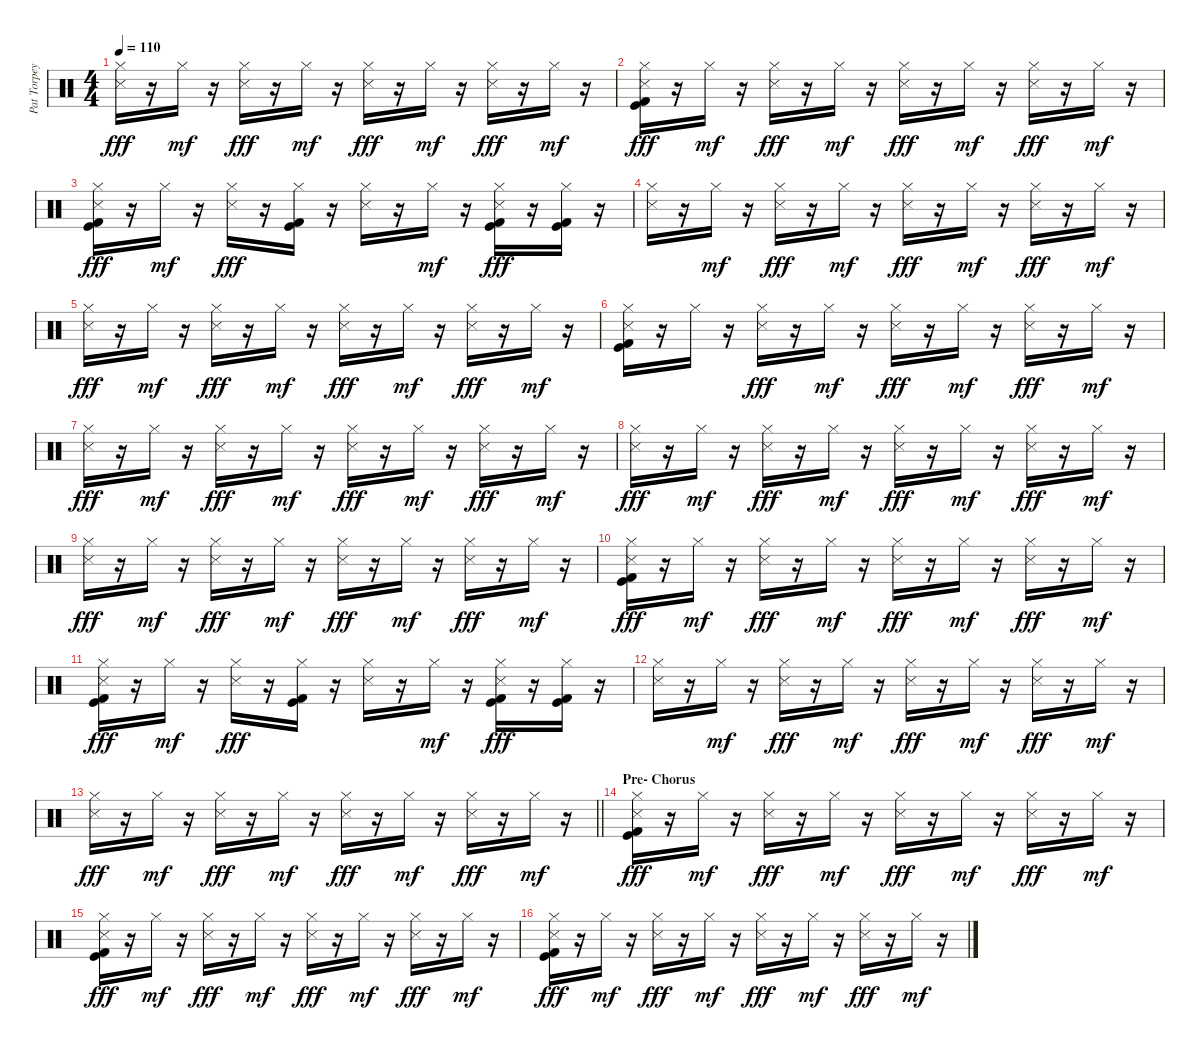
\track ("Pat Torpey" "Pat Torpey") {instrument percussion}
\staff {score}
\articulation defaults
\ts (4 4)
\tempo 110
\clef neutral
\ks c
("Snare (side stick) 3" "Hi-Hat (closed)").16{dy fff} r.16 "Hi-Hat (closed)".16{dy mf} r.16 ("Snare (side stick) 3" "Hi-Hat (closed)").16{dy fff} r.16 "Hi-Hat (closed)".16{dy mf} r.16 ("Snare (side stick) 3" "Hi-Hat (closed)").16{dy fff} r.16 "Hi-Hat (closed)".16{dy mf} r.16 ("Snare (side stick) 3" "Hi-Hat (closed)").16{dy fff} r.16 "Hi-Hat (closed)".16{dy mf} r.16 |
("Snare (side stick) 3" "Hi-Hat (closed)" "Kick (hit)" "Kick (hit) 2").16{dy fff} r.16 "Hi-Hat (closed)".16{dy mf} r.16 ("Snare (side stick) 3" "Hi-Hat (closed)").16{dy fff} r.16 "Hi-Hat (closed)".16{dy mf} r.16 ("Snare (side stick) 3" "Hi-Hat (closed)").16{dy fff} r.16 "Hi-Hat (closed)".16{dy mf} r.16 ("Snare (side stick) 3" "Hi-Hat (closed)").16{dy fff} r.16 "Hi-Hat (closed)".16{dy mf} r.16 |
("Snare (side stick) 3" "Hi-Hat (closed)" "Kick (hit)" "Kick (hit) 2").16{dy fff} r.16 "Hi-Hat (closed)".16{dy mf} r.16 ("Snare (side stick) 3" "Hi-Hat (closed)").16{dy fff} r.16 ("Hi-Hat (closed)" "Kick (hit)" "Kick (hit) 2").16 r.16 ("Snare (side stick) 3" "Hi-Hat (closed)").16 r.16 "Hi-Hat (closed)".16{dy mf} r.16 ("Snare (side stick) 3" "Hi-Hat (closed)" "Kick (hit)" "Kick (hit) 2").16{dy fff} r.16 ("Hi-Hat (closed)" "Kick (hit)" "Kick (hit) 2").16 r.16 |
("Snare (side stick) 3" "Hi-Hat (closed)").16 r.16 "Hi-Hat (closed)".16{dy mf} r.16 ("Snare (side stick) 3" "Hi-Hat (closed)").16{dy fff} r.16 "Hi-Hat (closed)".16{dy mf} r.16 ("Snare (side stick) 3" "Hi-Hat (closed)").16{dy fff} r.16 "Hi-Hat (closed)".16{dy mf} r.16 ("Snare (side stick) 3" "Hi-Hat (closed)").16{dy fff} r.16 "Hi-Hat (closed)".16{dy mf} r.16 |
("Snare (side stick) 3" "Hi-Hat (closed)").16{dy fff} r.16 "Hi-Hat (closed)".16{dy mf} r.16 ("Snare (side stick) 3" "Hi-Hat (closed)").16{dy fff} r.16 "Hi-Hat (closed)".16{dy mf} r.16 ("Snare (side stick) 3" "Hi-Hat (closed)").16{dy fff} r.16 "Hi-Hat (closed)".16{dy mf} r.16 ("Snare (side stick) 3" "Hi-Hat (closed)").16{dy fff} r.16 "Hi-Hat (closed)".16{dy mf} r.16 |
("Snare (side stick) 3" "Hi-Hat (closed)" "Kick (hit)" "Kick (hit) 2").16 r.16 "Hi-Hat (closed)".16 r.16 ("Snare (side stick) 3" "Hi-Hat (closed)").16{dy fff} r.16 "Hi-Hat (closed)".16{dy mf} r.16 ("Snare (side stick) 3" "Hi-Hat (closed)").16{dy fff} r.16 "Hi-Hat (closed)".16{dy mf} r.16 ("Snare (side stick) 3" "Hi-Hat (closed)").16{dy fff} r.16 "Hi-Hat (closed)".16{dy mf} r.16 |
("Snare (side stick) 3" "Hi-Hat (closed)").16{dy fff} r.16 "Hi-Hat (closed)".16{dy mf} r.16 ("Snare (side stick) 3" "Hi-Hat (closed)").16{dy fff} r.16 "Hi-Hat (closed)".16{dy mf} r.16 ("Snare (side stick) 3" "Hi-Hat (closed)").16{dy fff} r.16 "Hi-Hat (closed)".16{dy mf} r.16 ("Snare (side stick) 3" "Hi-Hat (closed)").16{dy fff} r.16 "Hi-Hat (closed)".16{dy mf} r.16 |
("Snare (side stick) 3" "Hi-Hat (closed)").16{dy fff} r.16 "Hi-Hat (closed)".16{dy mf} r.16 ("Snare (side stick) 3" "Hi-Hat (closed)").16{dy fff} r.16 "Hi-Hat (closed)".16{dy mf} r.16 ("Snare (side stick) 3" "Hi-Hat (closed)").16{dy fff} r.16 "Hi-Hat (closed)".16{dy mf} r.16 ("Snare (side stick) 3" "Hi-Hat (closed)").16{dy fff} r.16 "Hi-Hat (closed)".16{dy mf} r.16 |
("Snare (side stick) 3" "Hi-Hat (closed)").16{dy fff} r.16 "Hi-Hat (closed)".16{dy mf} r.16 ("Snare (side stick) 3" "Hi-Hat (closed)").16{dy fff} r.16 "Hi-Hat (closed)".16{dy mf} r.16 ("Snare (side stick) 3" "Hi-Hat (closed)").16{dy fff} r.16 "Hi-Hat (closed)".16{dy mf} r.16 ("Snare (side stick) 3" "Hi-Hat (closed)").16{dy fff} r.16 "Hi-Hat (closed)".16{dy mf} r.16 |
("Snare (side stick) 3" "Hi-Hat (closed)" "Kick (hit)" "Kick (hit) 2").16{dy fff} r.16 "Hi-Hat (closed)".16{dy mf} r.16 ("Snare (side stick) 3" "Hi-Hat (closed)").16{dy fff} r.16 "Hi-Hat (closed)".16{dy mf} r.16 ("Snare (side stick) 3" "Hi-Hat (closed)").16{dy fff} r.16 "Hi-Hat (closed)".16{dy mf} r.16 ("Snare (side stick) 3" "Hi-Hat (closed)").16{dy fff} r.16 "Hi-Hat (closed)".16{dy mf} r.16 |
("Snare (side stick) 3" "Hi-Hat (closed)" "Kick (hit)" "Kick (hit) 2").16{dy fff} r.16 "Hi-Hat (closed)".16{dy mf} r.16 ("Snare (side stick) 3" "Hi-Hat (closed)").16{dy fff} r.16 ("Hi-Hat (closed)" "Kick (hit)" "Kick (hit) 2").16 r.16 ("Snare (side stick) 3" "Hi-Hat (closed)").16 r.16 "Hi-Hat (closed)".16{dy mf} r.16 ("Snare (side stick) 3" "Hi-Hat (closed)" "Kick (hit)" "Kick (hit) 2").16{dy fff} r.16 ("Hi-Hat (closed)" "Kick (hit)" "Kick (hit) 2").16 r.16 |
("Snare (side stick) 3" "Hi-Hat (closed)").16 r.16 "Hi-Hat (closed)".16{dy mf} r.16 ("Snare (side stick) 3" "Hi-Hat (closed)").16{dy fff} r.16 "Hi-Hat (closed)".16{dy mf} r.16 ("Snare (side stick) 3" "Hi-Hat (closed)").16{dy fff} r.16 "Hi-Hat (closed)".16{dy mf} r.16 ("Snare (side stick) 3" "Hi-Hat (closed)").16{dy fff} r.16 "Hi-Hat (closed)".16{dy mf} r.16 |
\barLineRight lightlight
("Snare (side stick) 3" "Hi-Hat (closed)").16{dy fff} r.16 "Hi-Hat (closed)".16{dy mf} r.16 ("Snare (side stick) 3" "Hi-Hat (closed)").16{dy fff} r.16 "Hi-Hat (closed)".16{dy mf} r.16 ("Snare (side stick) 3" "Hi-Hat (closed)").16{dy fff} r.16 "Hi-Hat (closed)".16{dy mf} r.16 ("Snare (side stick) 3" "Hi-Hat (closed)").16{dy fff} r.16 "Hi-Hat (closed)".16{dy mf} r.16 |
\section ("" "Pre- Chorus")
("Snare (side stick) 3" "Hi-Hat (closed)" "Kick (hit)" "Kick (hit) 2").16{dy fff} r.16 "Hi-Hat (closed)".16{dy mf} r.16 ("Snare (side stick) 3" "Hi-Hat (closed)").16{dy fff} r.16 "Hi-Hat (closed)".16{dy mf} r.16 ("Snare (side stick) 3" "Hi-Hat (closed)").16{dy fff} r.16 "Hi-Hat (closed)".16{dy mf} r.16 ("Snare (side stick) 3" "Hi-Hat (closed)").16{dy fff} r.16 "Hi-Hat (closed)".16{dy mf} r.16 |
("Snare (side stick) 3" "Hi-Hat (closed)" "Kick (hit)" "Kick (hit) 2").16{dy fff} r.16 "Hi-Hat (closed)".16{dy mf} r.16 ("Snare (side stick) 3" "Hi-Hat (closed)").16{dy fff} r.16 "Hi-Hat (closed)".16{dy mf} r.16 ("Snare (side stick) 3" "Hi-Hat (closed)").16{dy fff} r.16 "Hi-Hat (closed)".16{dy mf} r.16 ("Snare (side stick) 3" "Hi-Hat (closed)").16{dy fff} r.16 "Hi-Hat (closed)".16{dy mf} r.16 |
("Snare (side stick) 3" "Hi-Hat (closed)" "Kick (hit)" "Kick (hit) 2").16{dy fff} r.16 "Hi-Hat (closed)".16{dy mf} r.16 ("Snare (side stick) 3" "Hi-Hat (closed)").16{dy fff} r.16 "Hi-Hat (closed)".16{dy mf} r.16 ("Snare (side stick) 3" "Hi-Hat (closed)").16{dy fff} r.16 "Hi-Hat (closed)".16{dy mf} r.16 ("Snare (side stick) 3" "Hi-Hat (closed)").16{dy fff} r.16 "Hi-Hat (closed)".16{dy mf} r.16
